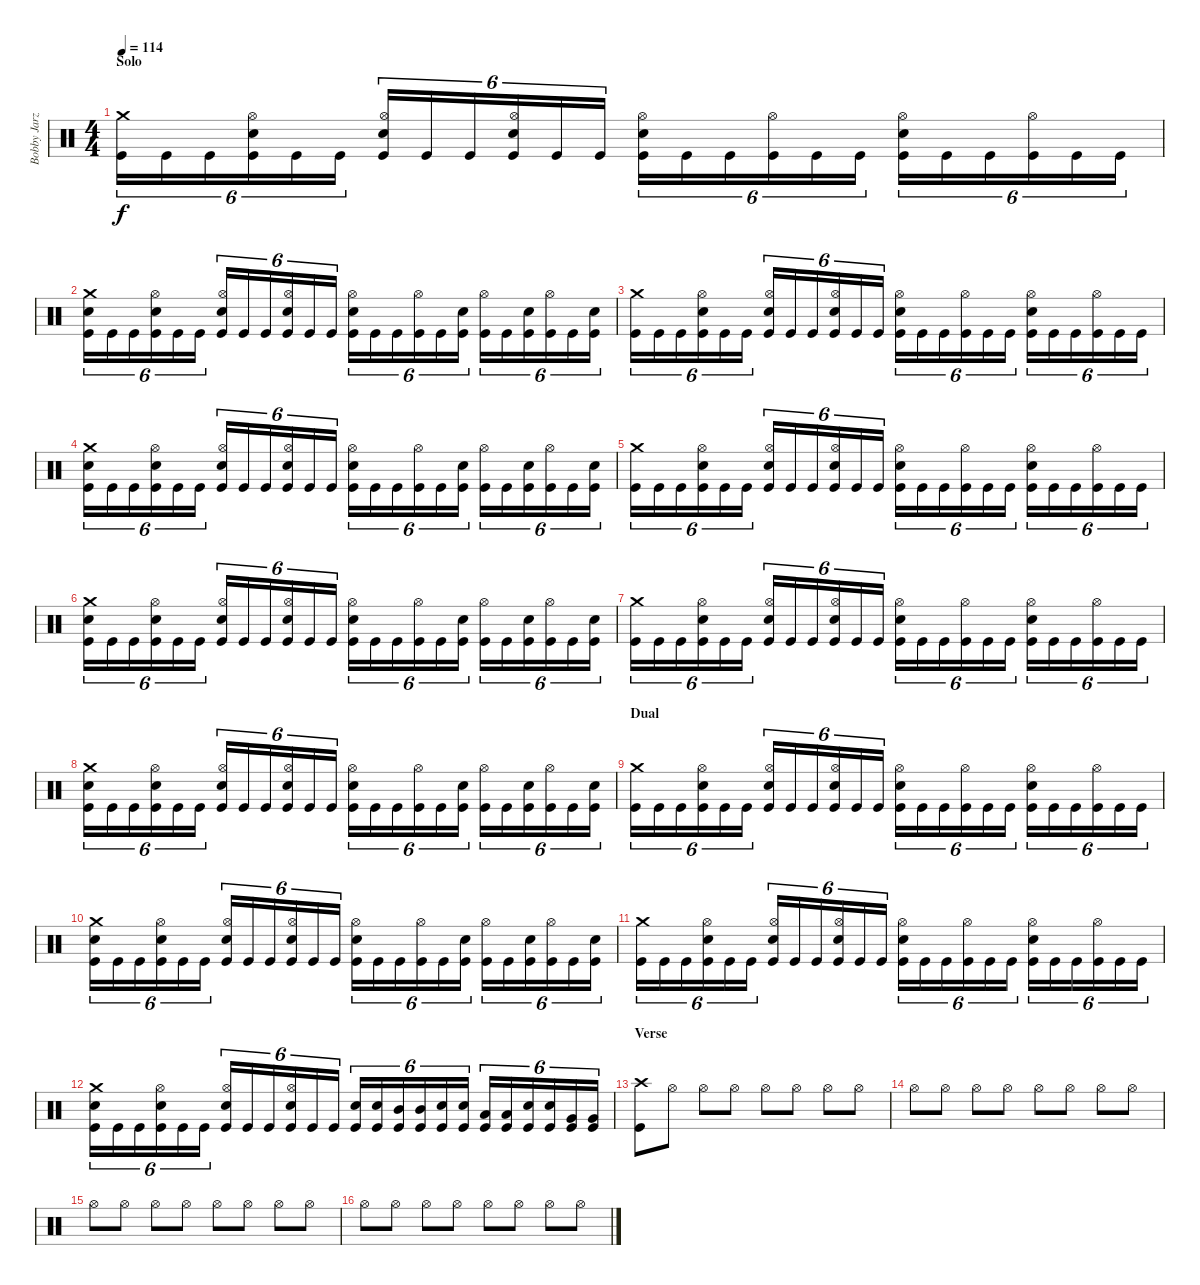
\track ("Bobby Jarzombek" "Bobby Jarz") {instrument percussion}
\staff {score}
\articulation defaults
\ts (4 4)
\section ("" "Solo")
\tempo 114
\clef neutral
\ks c
("Crash medium (hit)" "Kick (hit)").16{tu (6 4) dy f} "Kick (hit)".16{tu (6 4)} "Kick (hit)".16{tu (6 4)} ("Hi-Hat (open)" "Electric Snare (hit)" "Kick (hit)").16{tu (6 4)} "Kick (hit)".16{tu (6 4)} "Kick (hit)".16{tu (6 4)} ("Hi-Hat (open)" "Electric Snare (hit)" "Kick (hit)").16{tu (6 4)} "Kick (hit)".16{tu (6 4)} "Kick (hit)".16{tu (6 4)} ("Hi-Hat (open)" "Electric Snare (hit)" "Kick (hit)").16{tu (6 4)} "Kick (hit)".16{tu (6 4)} "Kick (hit)".16{tu (6 4)} ("Hi-Hat (open)" "Electric Snare (hit)" "Kick (hit)").16{tu (6 4)} "Kick (hit)".16{tu (6 4)} "Kick (hit)".16{tu (6 4)} ("Hi-Hat (open)" "Kick (hit)").16{tu (6 4)} "Kick (hit)".16{tu (6 4)} "Kick (hit)".16{tu (6 4)} ("Hi-Hat (open)" "Electric Snare (hit)" "Kick (hit)").16{tu (6 4)} "Kick (hit)".16{tu (6 4)} "Kick (hit)".16{tu (6 4)} ("Hi-Hat (open)" "Kick (hit)").16{tu (6 4)} "Kick (hit)".16{tu (6 4)} "Kick (hit)".16{tu (6 4)} |
("Crash medium (hit)" "Electric Snare (hit)" "Kick (hit)").16{tu (6 4)} "Kick (hit)".16{tu (6 4)} "Kick (hit)".16{tu (6 4)} ("Hi-Hat (open)" "Electric Snare (hit)" "Kick (hit)").16{tu (6 4)} "Kick (hit)".16{tu (6 4)} "Kick (hit)".16{tu (6 4)} ("Hi-Hat (open)" "Electric Snare (hit)" "Kick (hit)").16{tu (6 4)} "Kick (hit)".16{tu (6 4)} "Kick (hit)".16{tu (6 4)} ("Hi-Hat (open)" "Electric Snare (hit)" "Kick (hit)").16{tu (6 4)} "Kick (hit)".16{tu (6 4)} "Kick (hit)".16{tu (6 4)} ("Hi-Hat (open)" "Electric Snare (hit)" "Kick (hit)").16{tu (6 4)} "Kick (hit)".16{tu (6 4)} "Kick (hit)".16{tu (6 4)} ("Hi-Hat (open)" "Kick (hit)").16{tu (6 4)} "Kick (hit)".16{tu (6 4)} ("Electric Snare (hit)" "Kick (hit)").16{tu (6 4)} ("Hi-Hat (open)" "Kick (hit)").16{tu (6 4)} "Kick (hit)".16{tu (6 4)} ("Electric Snare (hit)" "Kick (hit)").16{tu (6 4)} ("Hi-Hat (open)" "Kick (hit)").16{tu (6 4)} "Kick (hit)".16{tu (6 4)} ("Electric Snare (hit)" "Kick (hit)").16{tu (6 4)} |
("Crash medium (hit)" "Kick (hit)").16{tu (6 4)} "Kick (hit)".16{tu (6 4)} "Kick (hit)".16{tu (6 4)} ("Hi-Hat (open)" "Electric Snare (hit)" "Kick (hit)").16{tu (6 4)} "Kick (hit)".16{tu (6 4)} "Kick (hit)".16{tu (6 4)} ("Hi-Hat (open)" "Electric Snare (hit)" "Kick (hit)").16{tu (6 4)} "Kick (hit)".16{tu (6 4)} "Kick (hit)".16{tu (6 4)} ("Hi-Hat (open)" "Electric Snare (hit)" "Kick (hit)").16{tu (6 4)} "Kick (hit)".16{tu (6 4)} "Kick (hit)".16{tu (6 4)} ("Hi-Hat (open)" "Electric Snare (hit)" "Kick (hit)").16{tu (6 4)} "Kick (hit)".16{tu (6 4)} "Kick (hit)".16{tu (6 4)} ("Hi-Hat (open)" "Kick (hit)").16{tu (6 4)} "Kick (hit)".16{tu (6 4)} "Kick (hit)".16{tu (6 4)} ("Hi-Hat (open)" "Electric Snare (hit)" "Kick (hit)").16{tu (6 4)} "Kick (hit)".16{tu (6 4)} "Kick (hit)".16{tu (6 4)} ("Hi-Hat (open)" "Kick (hit)").16{tu (6 4)} "Kick (hit)".16{tu (6 4)} "Kick (hit)".16{tu (6 4)} |
("Crash medium (hit)" "Electric Snare (hit)" "Kick (hit)").16{tu (6 4)} "Kick (hit)".16{tu (6 4)} "Kick (hit)".16{tu (6 4)} ("Hi-Hat (open)" "Electric Snare (hit)" "Kick (hit)").16{tu (6 4)} "Kick (hit)".16{tu (6 4)} "Kick (hit)".16{tu (6 4)} ("Hi-Hat (open)" "Electric Snare (hit)" "Kick (hit)").16{tu (6 4)} "Kick (hit)".16{tu (6 4)} "Kick (hit)".16{tu (6 4)} ("Hi-Hat (open)" "Electric Snare (hit)" "Kick (hit)").16{tu (6 4)} "Kick (hit)".16{tu (6 4)} "Kick (hit)".16{tu (6 4)} ("Hi-Hat (open)" "Electric Snare (hit)" "Kick (hit)").16{tu (6 4)} "Kick (hit)".16{tu (6 4)} "Kick (hit)".16{tu (6 4)} ("Hi-Hat (open)" "Kick (hit)").16{tu (6 4)} "Kick (hit)".16{tu (6 4)} ("Electric Snare (hit)" "Kick (hit)").16{tu (6 4)} ("Hi-Hat (open)" "Kick (hit)").16{tu (6 4)} "Kick (hit)".16{tu (6 4)} ("Electric Snare (hit)" "Kick (hit)").16{tu (6 4)} ("Hi-Hat (open)" "Kick (hit)").16{tu (6 4)} "Kick (hit)".16{tu (6 4)} ("Electric Snare (hit)" "Kick (hit)").16{tu (6 4)} |
("Crash medium (hit)" "Kick (hit)").16{tu (6 4)} "Kick (hit)".16{tu (6 4)} "Kick (hit)".16{tu (6 4)} ("Hi-Hat (open)" "Electric Snare (hit)" "Kick (hit)").16{tu (6 4)} "Kick (hit)".16{tu (6 4)} "Kick (hit)".16{tu (6 4)} ("Hi-Hat (open)" "Electric Snare (hit)" "Kick (hit)").16{tu (6 4)} "Kick (hit)".16{tu (6 4)} "Kick (hit)".16{tu (6 4)} ("Hi-Hat (open)" "Electric Snare (hit)" "Kick (hit)").16{tu (6 4)} "Kick (hit)".16{tu (6 4)} "Kick (hit)".16{tu (6 4)} ("Hi-Hat (open)" "Electric Snare (hit)" "Kick (hit)").16{tu (6 4)} "Kick (hit)".16{tu (6 4)} "Kick (hit)".16{tu (6 4)} ("Hi-Hat (open)" "Kick (hit)").16{tu (6 4)} "Kick (hit)".16{tu (6 4)} "Kick (hit)".16{tu (6 4)} ("Hi-Hat (open)" "Electric Snare (hit)" "Kick (hit)").16{tu (6 4)} "Kick (hit)".16{tu (6 4)} "Kick (hit)".16{tu (6 4)} ("Hi-Hat (open)" "Kick (hit)").16{tu (6 4)} "Kick (hit)".16{tu (6 4)} "Kick (hit)".16{tu (6 4)} |
("Crash medium (hit)" "Electric Snare (hit)" "Kick (hit)").16{tu (6 4)} "Kick (hit)".16{tu (6 4)} "Kick (hit)".16{tu (6 4)} ("Hi-Hat (open)" "Electric Snare (hit)" "Kick (hit)").16{tu (6 4)} "Kick (hit)".16{tu (6 4)} "Kick (hit)".16{tu (6 4)} ("Hi-Hat (open)" "Electric Snare (hit)" "Kick (hit)").16{tu (6 4)} "Kick (hit)".16{tu (6 4)} "Kick (hit)".16{tu (6 4)} ("Hi-Hat (open)" "Electric Snare (hit)" "Kick (hit)").16{tu (6 4)} "Kick (hit)".16{tu (6 4)} "Kick (hit)".16{tu (6 4)} ("Hi-Hat (open)" "Electric Snare (hit)" "Kick (hit)").16{tu (6 4)} "Kick (hit)".16{tu (6 4)} "Kick (hit)".16{tu (6 4)} ("Hi-Hat (open)" "Kick (hit)").16{tu (6 4)} "Kick (hit)".16{tu (6 4)} ("Electric Snare (hit)" "Kick (hit)").16{tu (6 4)} ("Hi-Hat (open)" "Kick (hit)").16{tu (6 4)} "Kick (hit)".16{tu (6 4)} ("Electric Snare (hit)" "Kick (hit)").16{tu (6 4)} ("Hi-Hat (open)" "Kick (hit)").16{tu (6 4)} "Kick (hit)".16{tu (6 4)} ("Electric Snare (hit)" "Kick (hit)").16{tu (6 4)} |
("Crash medium (hit)" "Kick (hit)").16{tu (6 4)} "Kick (hit)".16{tu (6 4)} "Kick (hit)".16{tu (6 4)} ("Hi-Hat (open)" "Electric Snare (hit)" "Kick (hit)").16{tu (6 4)} "Kick (hit)".16{tu (6 4)} "Kick (hit)".16{tu (6 4)} ("Hi-Hat (open)" "Electric Snare (hit)" "Kick (hit)").16{tu (6 4)} "Kick (hit)".16{tu (6 4)} "Kick (hit)".16{tu (6 4)} ("Hi-Hat (open)" "Electric Snare (hit)" "Kick (hit)").16{tu (6 4)} "Kick (hit)".16{tu (6 4)} "Kick (hit)".16{tu (6 4)} ("Hi-Hat (open)" "Electric Snare (hit)" "Kick (hit)").16{tu (6 4)} "Kick (hit)".16{tu (6 4)} "Kick (hit)".16{tu (6 4)} ("Hi-Hat (open)" "Kick (hit)").16{tu (6 4)} "Kick (hit)".16{tu (6 4)} "Kick (hit)".16{tu (6 4)} ("Hi-Hat (open)" "Electric Snare (hit)" "Kick (hit)").16{tu (6 4)} "Kick (hit)".16{tu (6 4)} "Kick (hit)".16{tu (6 4)} ("Hi-Hat (open)" "Kick (hit)").16{tu (6 4)} "Kick (hit)".16{tu (6 4)} "Kick (hit)".16{tu (6 4)} |
("Crash medium (hit)" "Electric Snare (hit)" "Kick (hit)").16{tu (6 4)} "Kick (hit)".16{tu (6 4)} "Kick (hit)".16{tu (6 4)} ("Hi-Hat (open)" "Electric Snare (hit)" "Kick (hit)").16{tu (6 4)} "Kick (hit)".16{tu (6 4)} "Kick (hit)".16{tu (6 4)} ("Hi-Hat (open)" "Electric Snare (hit)" "Kick (hit)").16{tu (6 4)} "Kick (hit)".16{tu (6 4)} "Kick (hit)".16{tu (6 4)} ("Hi-Hat (open)" "Electric Snare (hit)" "Kick (hit)").16{tu (6 4)} "Kick (hit)".16{tu (6 4)} "Kick (hit)".16{tu (6 4)} ("Hi-Hat (open)" "Electric Snare (hit)" "Kick (hit)").16{tu (6 4)} "Kick (hit)".16{tu (6 4)} "Kick (hit)".16{tu (6 4)} ("Hi-Hat (open)" "Kick (hit)").16{tu (6 4)} "Kick (hit)".16{tu (6 4)} ("Electric Snare (hit)" "Kick (hit)").16{tu (6 4)} ("Hi-Hat (open)" "Kick (hit)").16{tu (6 4)} "Kick (hit)".16{tu (6 4)} ("Electric Snare (hit)" "Kick (hit)").16{tu (6 4)} ("Hi-Hat (open)" "Kick (hit)").16{tu (6 4)} "Kick (hit)".16{tu (6 4)} ("Electric Snare (hit)" "Kick (hit)").16{tu (6 4)} |
\section ("" "Dual")
("Crash medium (hit)" "Kick (hit)").16{tu (6 4)} "Kick (hit)".16{tu (6 4)} "Kick (hit)".16{tu (6 4)} ("Hi-Hat (open)" "Electric Snare (hit)" "Kick (hit)").16{tu (6 4)} "Kick (hit)".16{tu (6 4)} "Kick (hit)".16{tu (6 4)} ("Hi-Hat (open)" "Electric Snare (hit)" "Kick (hit)").16{tu (6 4)} "Kick (hit)".16{tu (6 4)} "Kick (hit)".16{tu (6 4)} ("Hi-Hat (open)" "Electric Snare (hit)" "Kick (hit)").16{tu (6 4)} "Kick (hit)".16{tu (6 4)} "Kick (hit)".16{tu (6 4)} ("Hi-Hat (open)" "Electric Snare (hit)" "Kick (hit)").16{tu (6 4)} "Kick (hit)".16{tu (6 4)} "Kick (hit)".16{tu (6 4)} ("Hi-Hat (open)" "Kick (hit)").16{tu (6 4)} "Kick (hit)".16{tu (6 4)} "Kick (hit)".16{tu (6 4)} ("Hi-Hat (open)" "Electric Snare (hit)" "Kick (hit)").16{tu (6 4)} "Kick (hit)".16{tu (6 4)} "Kick (hit)".16{tu (6 4)} ("Hi-Hat (open)" "Kick (hit)").16{tu (6 4)} "Kick (hit)".16{tu (6 4)} "Kick (hit)".16{tu (6 4)} |
("Crash medium (hit)" "Electric Snare (hit)" "Kick (hit)").16{tu (6 4)} "Kick (hit)".16{tu (6 4)} "Kick (hit)".16{tu (6 4)} ("Hi-Hat (open)" "Electric Snare (hit)" "Kick (hit)").16{tu (6 4)} "Kick (hit)".16{tu (6 4)} "Kick (hit)".16{tu (6 4)} ("Hi-Hat (open)" "Electric Snare (hit)" "Kick (hit)").16{tu (6 4)} "Kick (hit)".16{tu (6 4)} "Kick (hit)".16{tu (6 4)} ("Hi-Hat (open)" "Electric Snare (hit)" "Kick (hit)").16{tu (6 4)} "Kick (hit)".16{tu (6 4)} "Kick (hit)".16{tu (6 4)} ("Hi-Hat (open)" "Electric Snare (hit)" "Kick (hit)").16{tu (6 4)} "Kick (hit)".16{tu (6 4)} "Kick (hit)".16{tu (6 4)} ("Hi-Hat (open)" "Kick (hit)").16{tu (6 4)} "Kick (hit)".16{tu (6 4)} ("Electric Snare (hit)" "Kick (hit)").16{tu (6 4)} ("Hi-Hat (open)" "Kick (hit)").16{tu (6 4)} "Kick (hit)".16{tu (6 4)} ("Electric Snare (hit)" "Kick (hit)").16{tu (6 4)} ("Hi-Hat (open)" "Kick (hit)").16{tu (6 4)} "Kick (hit)".16{tu (6 4)} ("Electric Snare (hit)" "Kick (hit)").16{tu (6 4)} |
("Crash medium (hit)" "Kick (hit)").16{tu (6 4)} "Kick (hit)".16{tu (6 4)} "Kick (hit)".16{tu (6 4)} ("Hi-Hat (open)" "Electric Snare (hit)" "Kick (hit)").16{tu (6 4)} "Kick (hit)".16{tu (6 4)} "Kick (hit)".16{tu (6 4)} ("Hi-Hat (open)" "Electric Snare (hit)" "Kick (hit)").16{tu (6 4)} "Kick (hit)".16{tu (6 4)} "Kick (hit)".16{tu (6 4)} ("Hi-Hat (open)" "Electric Snare (hit)" "Kick (hit)").16{tu (6 4)} "Kick (hit)".16{tu (6 4)} "Kick (hit)".16{tu (6 4)} ("Hi-Hat (open)" "Electric Snare (hit)" "Kick (hit)").16{tu (6 4)} "Kick (hit)".16{tu (6 4)} "Kick (hit)".16{tu (6 4)} ("Hi-Hat (open)" "Kick (hit)").16{tu (6 4)} "Kick (hit)".16{tu (6 4)} "Kick (hit)".16{tu (6 4)} ("Hi-Hat (open)" "Electric Snare (hit)" "Kick (hit)").16{tu (6 4)} "Kick (hit)".16{tu (6 4)} "Kick (hit)".16{tu (6 4)} ("Hi-Hat (open)" "Kick (hit)").16{tu (6 4)} "Kick (hit)".16{tu (6 4)} "Kick (hit)".16{tu (6 4)} |
("Crash medium (hit)" "Electric Snare (hit)" "Kick (hit)").16{tu (6 4)} "Kick (hit)".16{tu (6 4)} "Kick (hit)".16{tu (6 4)} ("Hi-Hat (open)" "Electric Snare (hit)" "Kick (hit)").16{tu (6 4)} "Kick (hit)".16{tu (6 4)} "Kick (hit)".16{tu (6 4)} ("Hi-Hat (open)" "Electric Snare (hit)" "Kick (hit)").16{tu (6 4)} "Kick (hit)".16{tu (6 4)} "Kick (hit)".16{tu (6 4)} ("Hi-Hat (open)" "Electric Snare (hit)" "Kick (hit)").16{tu (6 4)} "Kick (hit)".16{tu (6 4)} "Kick (hit)".16{tu (6 4)} ("Electric Snare (hit)" "Kick (hit)").16{tu (6 4)} ("Electric Snare (hit)" "Kick (hit)").16{tu (6 4)} ("Mid Tom (hit)" "Kick (hit)").16{tu (6 4)} ("Mid Tom (hit)" "Kick (hit)").16{tu (6 4)} ("Electric Snare (hit)" "Kick (hit)").16{tu (6 4)} ("Electric Snare (hit)" "Kick (hit)").16{tu (6 4)} ("Low Tom (hit)" "Kick (hit)").16{tu (6 4)} ("Low Tom (hit)" "Kick (hit)").16{tu (6 4)} ("Electric Snare (hit)" "Kick (hit)").16{tu (6 4)} ("Electric Snare (hit)" "Kick (hit)").16{tu (6 4)} ("Very Low Tom (hit)" "Kick (hit)").16{tu (6 4)} ("Very Low Tom (hit)" "Kick (hit)").16{tu (6 4)} |
\section ("" "Verse")
("Crash high (hit)" "Kick (hit)").8 "Hi-Hat (open)".8 "Hi-Hat (open)".8 "Hi-Hat (open)".8 "Hi-Hat (open)".8 "Hi-Hat (open)".8 "Hi-Hat (open)".8 "Hi-Hat (open)".8 |
"Hi-Hat (open)".8 "Hi-Hat (open)".8 "Hi-Hat (open)".8 "Hi-Hat (open)".8 "Hi-Hat (open)".8 "Hi-Hat (open)".8 "Hi-Hat (open)".8 "Hi-Hat (open)".8 |
"Hi-Hat (open)".8 "Hi-Hat (open)".8 "Hi-Hat (open)".8 "Hi-Hat (open)".8 "Hi-Hat (open)".8 "Hi-Hat (open)".8 "Hi-Hat (open)".8 "Hi-Hat (open)".8 |
"Hi-Hat (open)".8 "Hi-Hat (open)".8 "Hi-Hat (open)".8 "Hi-Hat (open)".8 "Hi-Hat (open)".8 "Hi-Hat (open)".8 "Hi-Hat (open)".8 "Hi-Hat (open)".8
